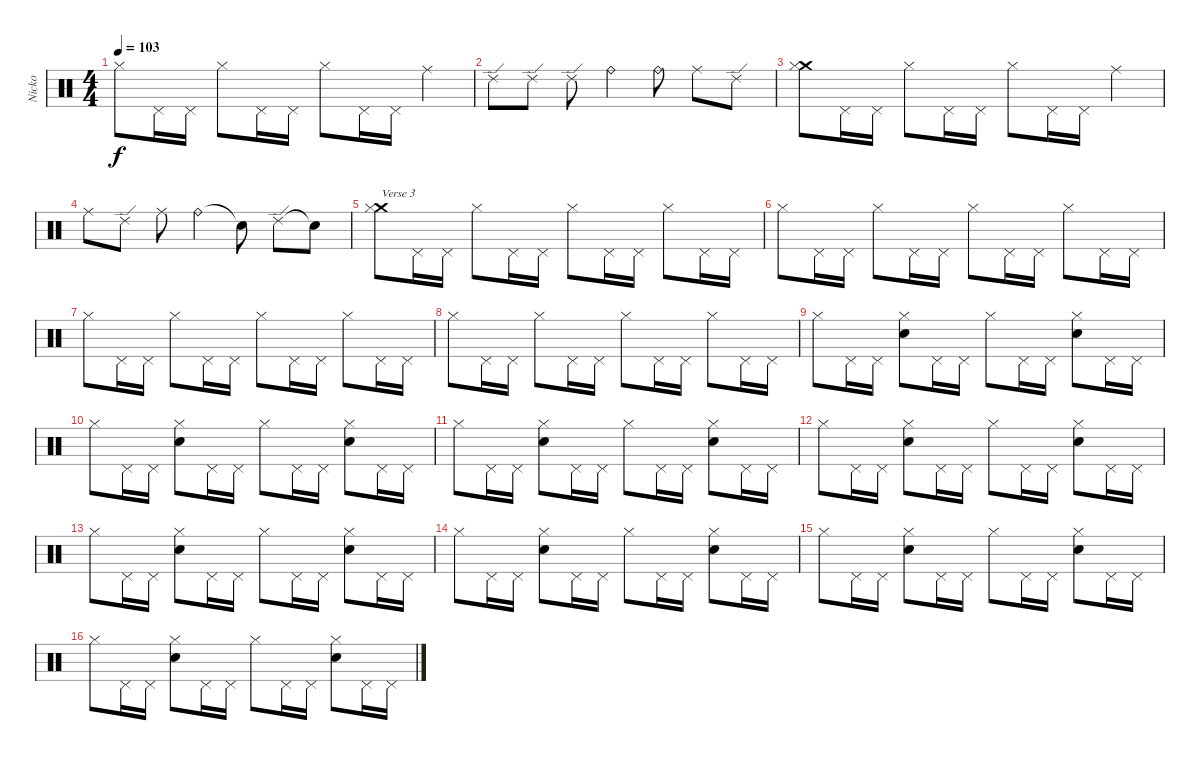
\track ("Nicko" "Nicko") {instrument percussion}
\staff {score}
\articulation defaults
\ts (4 4)
\tempo 103
\clef neutral
\ks c "Hi-Hat (closed)".8{dy f} "Pedal Hi-Hat (hit)".16 "Pedal Hi-Hat (hit)".16 "Hi-Hat (closed)".8 "Pedal Hi-Hat (hit)".16 "Pedal Hi-Hat (hit)".16 "Hi-Hat (closed)".8 "Pedal Hi-Hat (hit)".16 "Pedal Hi-Hat (hit)".16 "Ride (middle)".4
|
"Ride (edge) 2".8 "Ride (edge) 2".8 "Ride (edge) 2".8 "Ride (bell)".4 "Ride (bell)".8 "Ride (middle)".8 "Ride (edge) 2".8 |
("Crash medium (hit)" "Hi-Hat (closed)").8 "Pedal Hi-Hat (hit)".16 "Pedal Hi-Hat (hit)".16 "Hi-Hat (closed)".8 "Pedal Hi-Hat (hit)".16 "Pedal Hi-Hat (hit)".16 "Hi-Hat (closed)".8 "Pedal Hi-Hat (hit)".16 "Pedal Hi-Hat (hit)".16 "Ride (middle)".4 |
"Ride (middle)".8 "Ride (edge) 2".8 "Ride (middle)".8 "Ride (bell)".4 "Snare (hit)"{t}.8 "Ride (edge) 2".8 "Snare (hit)"{t}.8 |
("Crash medium (hit)" "Hi-Hat (closed)").8{txt "Verse 3"} "Pedal Hi-Hat (hit)".16 "Pedal Hi-Hat (hit)".16 "Hi-Hat (closed)".8 "Pedal Hi-Hat (hit)".16 "Pedal Hi-Hat (hit)".16 "Hi-Hat (closed)".8 "Pedal Hi-Hat (hit)".16 "Pedal Hi-Hat (hit)".16 "Hi-Hat (closed)".8 "Pedal Hi-Hat (hit)".16 "Pedal Hi-Hat (hit)".16 |
"Hi-Hat (closed)".8 "Pedal Hi-Hat (hit)".16 "Pedal Hi-Hat (hit)".16 "Hi-Hat (closed)".8 "Pedal Hi-Hat (hit)".16 "Pedal Hi-Hat (hit)".16 "Hi-Hat (closed)".8 "Pedal Hi-Hat (hit)".16 "Pedal Hi-Hat (hit)".16 "Hi-Hat (closed)".8 "Pedal Hi-Hat (hit)".16 "Pedal Hi-Hat (hit)".16 |
"Hi-Hat (closed)".8 "Pedal Hi-Hat (hit)".16 "Pedal Hi-Hat (hit)".16 "Hi-Hat (closed)".8 "Pedal Hi-Hat (hit)".16 "Pedal Hi-Hat (hit)".16 "Hi-Hat (closed)".8 "Pedal Hi-Hat (hit)".16 "Pedal Hi-Hat (hit)".16 "Hi-Hat (closed)".8 "Pedal Hi-Hat (hit)".16 "Pedal Hi-Hat (hit)".16 |
"Hi-Hat (closed)".8 "Pedal Hi-Hat (hit)".16 "Pedal Hi-Hat (hit)".16 "Hi-Hat (closed)".8 "Pedal Hi-Hat (hit)".16 "Pedal Hi-Hat (hit)".16 "Hi-Hat (closed)".8 "Pedal Hi-Hat (hit)".16 "Pedal Hi-Hat (hit)".16 "Hi-Hat (closed)".8 "Pedal Hi-Hat (hit)".16 "Pedal Hi-Hat (hit)".16 |
"Hi-Hat (closed)".8 "Pedal Hi-Hat (hit)".16 "Pedal Hi-Hat (hit)".16 ("Hi-Hat (closed)" "Snare (hit) 2").8 "Pedal Hi-Hat (hit)".16 "Pedal Hi-Hat (hit)".16 "Hi-Hat (closed)".8 "Pedal Hi-Hat (hit)".16 "Pedal Hi-Hat (hit)".16 ("Hi-Hat (closed)" "Snare (hit) 2").8 "Pedal Hi-Hat (hit)".16 "Pedal Hi-Hat (hit)".16 |
"Hi-Hat (closed)".8 "Pedal Hi-Hat (hit)".16 "Pedal Hi-Hat (hit)".16 ("Hi-Hat (closed)" "Snare (hit) 2").8 "Pedal Hi-Hat (hit)".16 "Pedal Hi-Hat (hit)".16 "Hi-Hat (closed)".8 "Pedal Hi-Hat (hit)".16 "Pedal Hi-Hat (hit)".16 ("Hi-Hat (closed)" "Snare (hit) 2").8 "Pedal Hi-Hat (hit)".16 "Pedal Hi-Hat (hit)".16 |
"Hi-Hat (closed)".8 "Pedal Hi-Hat (hit)".16 "Pedal Hi-Hat (hit)".16 ("Hi-Hat (closed)" "Snare (hit) 2").8 "Pedal Hi-Hat (hit)".16 "Pedal Hi-Hat (hit)".16 "Hi-Hat (closed)".8 "Pedal Hi-Hat (hit)".16 "Pedal Hi-Hat (hit)".16 ("Hi-Hat (closed)" "Snare (hit) 2").8 "Pedal Hi-Hat (hit)".16 "Pedal Hi-Hat (hit)".16 |
"Hi-Hat (closed)".8 "Pedal Hi-Hat (hit)".16 "Pedal Hi-Hat (hit)".16 ("Hi-Hat (closed)" "Snare (hit) 2").8 "Pedal Hi-Hat (hit)".16 "Pedal Hi-Hat (hit)".16 "Hi-Hat (closed)".8 "Pedal Hi-Hat (hit)".16 "Pedal Hi-Hat (hit)".16 ("Hi-Hat (closed)" "Snare (hit) 2").8 "Pedal Hi-Hat (hit)".16 "Pedal Hi-Hat (hit)".16 |
"Hi-Hat (closed)".8 "Pedal Hi-Hat (hit)".16 "Pedal Hi-Hat (hit)".16 ("Hi-Hat (closed)" "Snare (hit) 2").8 "Pedal Hi-Hat (hit)".16 "Pedal Hi-Hat (hit)".16 "Hi-Hat (closed)".8 "Pedal Hi-Hat (hit)".16 "Pedal Hi-Hat (hit)".16 ("Hi-Hat (closed)" "Snare (hit) 2").8 "Pedal Hi-Hat (hit)".16 "Pedal Hi-Hat (hit)".16 |
"Hi-Hat (closed)".8 "Pedal Hi-Hat (hit)".16 "Pedal Hi-Hat (hit)".16 ("Hi-Hat (closed)" "Snare (hit) 2").8 "Pedal Hi-Hat (hit)".16 "Pedal Hi-Hat (hit)".16 "Hi-Hat (closed)".8 "Pedal Hi-Hat (hit)".16 "Pedal Hi-Hat (hit)".16 ("Hi-Hat (closed)" "Snare (hit) 2").8 "Pedal Hi-Hat (hit)".16 "Pedal Hi-Hat (hit)".16 |
"Hi-Hat (closed)".8 "Pedal Hi-Hat (hit)".16 "Pedal Hi-Hat (hit)".16 ("Hi-Hat (closed)" "Snare (hit) 2").8 "Pedal Hi-Hat (hit)".16 "Pedal Hi-Hat (hit)".16 "Hi-Hat (closed)".8 "Pedal Hi-Hat (hit)".16 "Pedal Hi-Hat (hit)".16 ("Hi-Hat (closed)" "Snare (hit) 2").8 "Pedal Hi-Hat (hit)".16 "Pedal Hi-Hat (hit)".16 |
"Hi-Hat (closed)".8 "Pedal Hi-Hat (hit)".16 "Pedal Hi-Hat (hit)".16 ("Hi-Hat (closed)" "Snare (hit) 2").8 "Pedal Hi-Hat (hit)".16 "Pedal Hi-Hat (hit)".16 "Hi-Hat (closed)".8 "Pedal Hi-Hat (hit)".16 "Pedal Hi-Hat (hit)".16 ("Hi-Hat (closed)" "Snare (hit) 2").8 "Pedal Hi-Hat (hit)".16 "Pedal Hi-Hat (hit)".16
